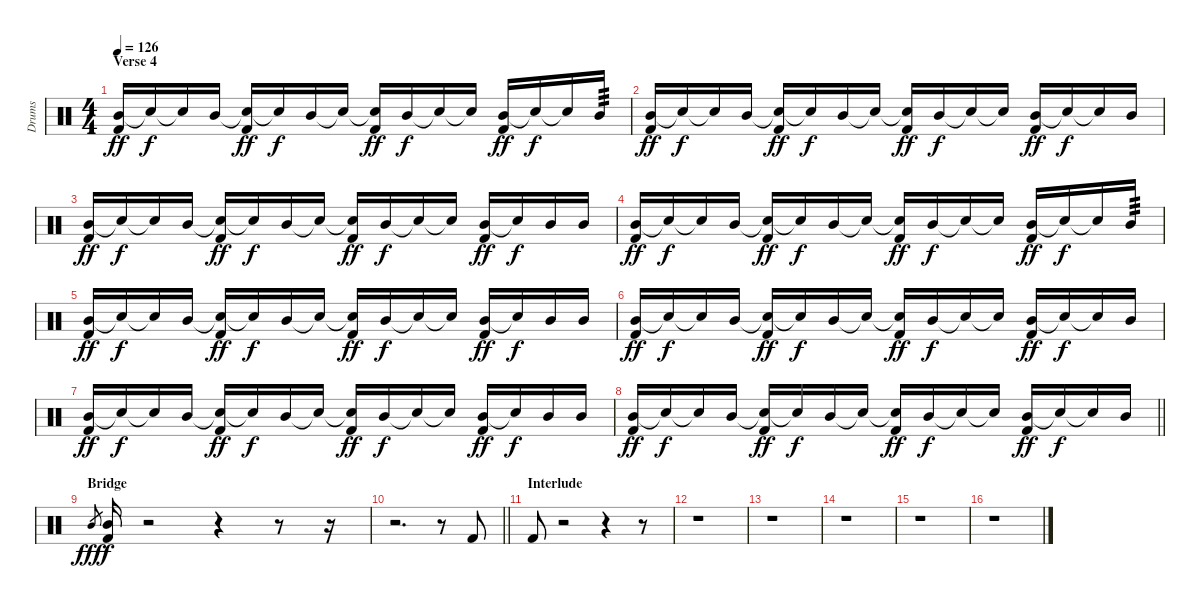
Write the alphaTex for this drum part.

\track ("Drums" "Drums") {instrument percussion}
\staff {score}
\articulation defaults
\ts (4 4)
\section ("" "Verse 4")
\tempo 126
\clef neutral
\ks c
("Mid Tom (hit)" "Kick (hit) 2").16{dy ff} "Snare (hit)"{t}.16{dy f} "Snare (hit)"{t}.16 "Mid Tom (hit)".16 ("Snare (hit)"{t} "Kick (hit) 2").16{dy ff} "Snare (hit)"{t}.16{dy f} "Mid Tom (hit)".16 "Snare (hit)"{t}.16 ("Snare (hit)"{t} "Kick (hit) 2").16{dy ff} "Mid Tom (hit)".16{dy f} "Snare (hit)"{t}.16 "Snare (hit)"{t}.16 ("Mid Tom (hit)" "Kick (hit) 2").16{dy ff} "Snare (hit)"{t}.16{dy f} "Snare (hit)"{t}.16 "Mid Tom (hit)".16{tp 3} |
("Mid Tom (hit)" "Kick (hit) 2").16{dy ff} "Snare (hit)"{t}.16{dy f} "Snare (hit)"{t}.16 "Mid Tom (hit)".16 ("Snare (hit)"{t} "Kick (hit) 2").16{dy ff} "Snare (hit)"{t}.16{dy f} "Mid Tom (hit)".16 "Snare (hit)"{t}.16 ("Snare (hit)"{t} "Kick (hit) 2").16{dy ff} "Mid Tom (hit)".16{dy f} "Snare (hit)"{t}.16 "Snare (hit)"{t}.16 ("Mid Tom (hit)" "Kick (hit) 2").16{dy ff} "Snare (hit)"{t}.16{dy f} "Snare (hit)"{t}.16 "Mid Tom (hit)".16 |
("Mid Tom (hit)" "Kick (hit) 2").16{dy ff} "Snare (hit)"{t}.16{dy f} "Snare (hit)"{t}.16 "Mid Tom (hit)".16 ("Snare (hit)"{t} "Kick (hit) 2").16{dy ff} "Snare (hit)"{t}.16{dy f} "Mid Tom (hit)".16 "Snare (hit)"{t}.16 ("Snare (hit)"{t} "Kick (hit) 2").16{dy ff} "Mid Tom (hit)".16{dy f} "Snare (hit)"{t}.16 "Snare (hit)"{t}.16 ("Mid Tom (hit)" "Kick (hit) 2").16{dy ff} "Snare (hit)"{t}.16{dy f} "Mid Tom (hit)".16 "Mid Tom (hit)".16 |
("Mid Tom (hit)" "Kick (hit) 2").16{dy ff} "Snare (hit)"{t}.16{dy f} "Snare (hit)"{t}.16 "Mid Tom (hit)".16 ("Snare (hit)"{t} "Kick (hit) 2").16{dy ff} "Snare (hit)"{t}.16{dy f} "Mid Tom (hit)".16 "Snare (hit)"{t}.16 ("Snare (hit)"{t} "Kick (hit) 2").16{dy ff} "Mid Tom (hit)".16{dy f} "Snare (hit)"{t}.16 "Snare (hit)"{t}.16 ("Mid Tom (hit)" "Kick (hit) 2").16{dy ff} "Snare (hit)"{t}.16{dy f} "Snare (hit)"{t}.16 "Mid Tom (hit)".16{tp 3} |
("Mid Tom (hit)" "Kick (hit) 2").16{dy ff} "Snare (hit)"{t}.16{dy f} "Snare (hit)"{t}.16 "Mid Tom (hit)".16 ("Snare (hit)"{t} "Kick (hit) 2").16{dy ff} "Snare (hit)"{t}.16{dy f} "Mid Tom (hit)".16 "Snare (hit)"{t}.16 ("Snare (hit)"{t} "Kick (hit) 2").16{dy ff} "Mid Tom (hit)".16{dy f} "Snare (hit)"{t}.16 "Snare (hit)"{t}.16 ("Mid Tom (hit)" "Kick (hit) 2").16{dy ff} "Snare (hit)"{t}.16{dy f} "Mid Tom (hit)".16 "Mid Tom (hit)".16 |
("Mid Tom (hit)" "Kick (hit) 2").16{dy ff} "Snare (hit)"{t}.16{dy f} "Snare (hit)"{t}.16 "Mid Tom (hit)".16 ("Snare (hit)"{t} "Kick (hit) 2").16{dy ff} "Snare (hit)"{t}.16{dy f} "Mid Tom (hit)".16 "Snare (hit)"{t}.16 ("Snare (hit)"{t} "Kick (hit) 2").16{dy ff} "Mid Tom (hit)".16{dy f} "Snare (hit)"{t}.16 "Snare (hit)"{t}.16 ("Mid Tom (hit)" "Kick (hit) 2").16{dy ff} "Snare (hit)"{t}.16{dy f} "Snare (hit)"{t}.16 "Mid Tom (hit)".16 |
("Mid Tom (hit)" "Kick (hit) 2").16{dy ff} "Snare (hit)"{t}.16{dy f} "Snare (hit)"{t}.16 "Mid Tom (hit)".16 ("Snare (hit)"{t} "Kick (hit) 2").16{dy ff} "Snare (hit)"{t}.16{dy f} "Mid Tom (hit)".16 "Snare (hit)"{t}.16 ("Snare (hit)"{t} "Kick (hit) 2").16{dy ff} "Mid Tom (hit)".16{dy f} "Snare (hit)"{t}.16 "Snare (hit)"{t}.16 ("Mid Tom (hit)" "Kick (hit) 2").16{dy ff} "Snare (hit)"{t}.16{dy f} "Mid Tom (hit)".16 "Mid Tom (hit)".16 |
\barLineRight lightlight
("Mid Tom (hit)" "Kick (hit) 2").16{dy ff} "Snare (hit)"{t}.16{dy f} "Snare (hit)"{t}.16 "Mid Tom (hit)".16 ("Snare (hit)"{t} "Kick (hit) 2").16{dy ff} "Snare (hit)"{t}.16{dy f} "Mid Tom (hit)".16 "Snare (hit)"{t}.16 ("Snare (hit)"{t} "Kick (hit) 2").16{dy ff} "Mid Tom (hit)".16{dy f} "Snare (hit)"{t}.16 "Snare (hit)"{t}.16 ("Mid Tom (hit)" "Kick (hit) 2").16{dy ff} "Snare (hit)"{t}.16{dy f} "Snare (hit)"{t}.16 "Mid Tom (hit)".16 |
\section ("" "Bridge")
"Mid Tom (hit)".8{gr dy fff} ("Mid Tom (hit)" "Kick (hit) 2").16{dy f} r.2 r.4 r.8 r.16 |
\barLineRight lightlight
r.2{d} r.8 "Kick (hit) 2".8 |
\section ("" "Interlude")
"Kick (hit) 2".8 r.2 r.4 r.8 |
r.1 |
r.1 |
r.1 |
r.1 |
r.1
